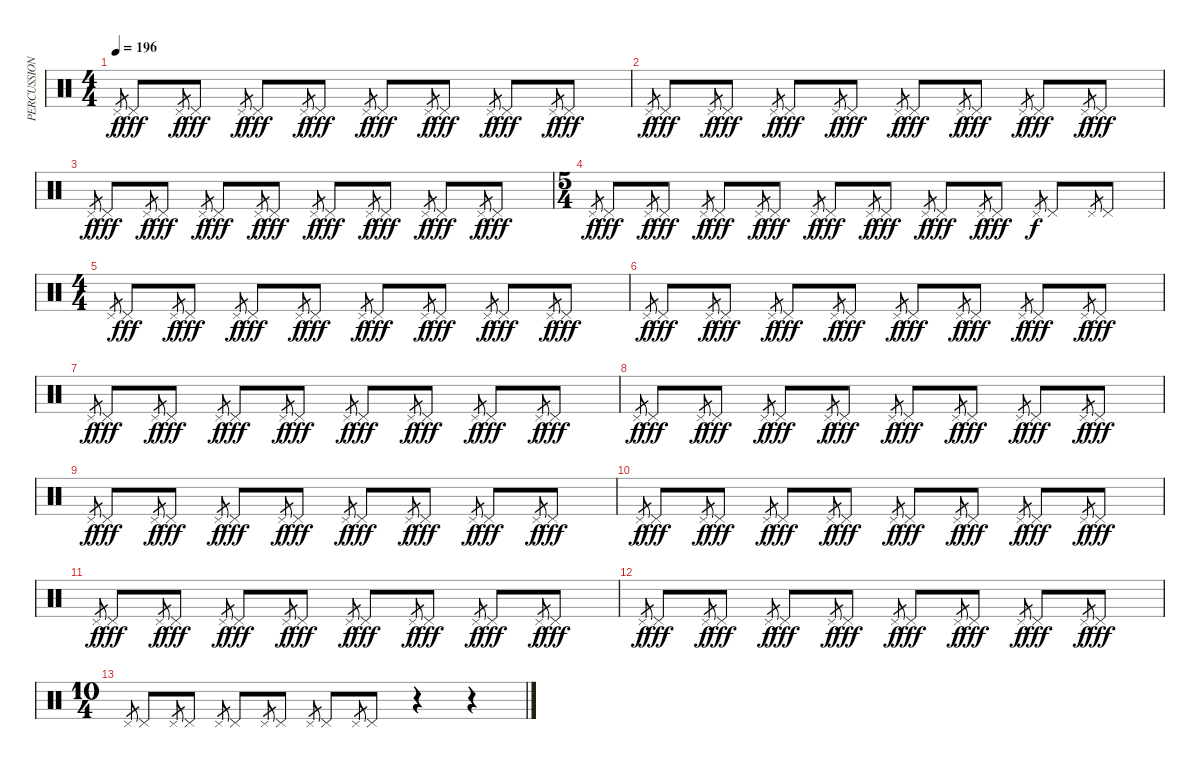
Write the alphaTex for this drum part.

\track ("PERCUSSION" "PERCUSSION") {instrument percussion}
\staff {score}
\articulation defaults
\ts (4 4)
\tempo 196
\clef neutral
\ks c "Pedal Hi-Hat (hit)".8{gr dy f} "Pedal Hi-Hat (hit)".8{dy fff} "Pedal Hi-Hat (hit)".8{gr dy f} "Pedal Hi-Hat (hit)".8{dy fff} "Pedal Hi-Hat (hit)".8{gr dy f} "Pedal Hi-Hat (hit)".8{dy fff} "Pedal Hi-Hat (hit)".8{gr dy f} "Pedal Hi-Hat (hit)".8{dy fff} "Pedal Hi-Hat (hit)".8{gr dy f} "Pedal Hi-Hat (hit)".8{dy fff} "Pedal Hi-Hat (hit)".8{gr dy f} "Pedal Hi-Hat (hit)".8{dy fff} "Pedal Hi-Hat (hit)".8{gr dy f} "Pedal Hi-Hat (hit)".8{dy fff} "Pedal Hi-Hat (hit)".8{gr dy f} "Pedal Hi-Hat (hit)".8{dy fff}
|
"Pedal Hi-Hat (hit)".8{gr dy f} "Pedal Hi-Hat (hit)".8{dy fff} "Pedal Hi-Hat (hit)".8{gr dy f} "Pedal Hi-Hat (hit)".8{dy fff} "Pedal Hi-Hat (hit)".8{gr dy f} "Pedal Hi-Hat (hit)".8{dy fff} "Pedal Hi-Hat (hit)".8{gr dy f} "Pedal Hi-Hat (hit)".8{dy fff} "Pedal Hi-Hat (hit)".8{gr dy f} "Pedal Hi-Hat (hit)".8{dy fff} "Pedal Hi-Hat (hit)".8{gr dy f} "Pedal Hi-Hat (hit)".8{dy fff} "Pedal Hi-Hat (hit)".8{gr dy f} "Pedal Hi-Hat (hit)".8{dy fff} "Pedal Hi-Hat (hit)".8{gr dy f} "Pedal Hi-Hat (hit)".8{dy fff} |
"Pedal Hi-Hat (hit)".8{gr dy f} "Pedal Hi-Hat (hit)".8{dy fff} "Pedal Hi-Hat (hit)".8{gr dy f} "Pedal Hi-Hat (hit)".8{dy fff} "Pedal Hi-Hat (hit)".8{gr dy f} "Pedal Hi-Hat (hit)".8{dy fff} "Pedal Hi-Hat (hit)".8{gr dy f} "Pedal Hi-Hat (hit)".8{dy fff} "Pedal Hi-Hat (hit)".8{gr dy f} "Pedal Hi-Hat (hit)".8{dy fff} "Pedal Hi-Hat (hit)".8{gr dy f} "Pedal Hi-Hat (hit)".8{dy fff} "Pedal Hi-Hat (hit)".8{gr dy f} "Pedal Hi-Hat (hit)".8{dy fff} "Pedal Hi-Hat (hit)".8{gr dy f} "Pedal Hi-Hat (hit)".8{dy fff} |
\ts (5 4)
"Pedal Hi-Hat (hit)".8{gr dy f} "Pedal Hi-Hat (hit)".8{dy fff} "Pedal Hi-Hat (hit)".8{gr dy f} "Pedal Hi-Hat (hit)".8{dy fff} "Pedal Hi-Hat (hit)".8{gr dy f} "Pedal Hi-Hat (hit)".8{dy fff} "Pedal Hi-Hat (hit)".8{gr dy f} "Pedal Hi-Hat (hit)".8{dy fff} "Pedal Hi-Hat (hit)".8{gr dy f} "Pedal Hi-Hat (hit)".8{dy fff} "Pedal Hi-Hat (hit)".8{gr dy f} "Pedal Hi-Hat (hit)".8{dy fff} "Pedal Hi-Hat (hit)".8{gr dy f} "Pedal Hi-Hat (hit)".8{dy fff} "Pedal Hi-Hat (hit)".8{gr dy f} "Pedal Hi-Hat (hit)".8{dy fff} "Pedal Hi-Hat (hit)".8{gr dy f} "Pedal Hi-Hat (hit)".8 "Pedal Hi-Hat (hit)".8{gr} "Pedal Hi-Hat (hit)".8 |
\ts (4 4)
"Pedal Hi-Hat (hit)".8{gr} "Pedal Hi-Hat (hit)".8{dy fff} "Pedal Hi-Hat (hit)".8{gr dy f} "Pedal Hi-Hat (hit)".8{dy fff} "Pedal Hi-Hat (hit)".8{gr dy f} "Pedal Hi-Hat (hit)".8{dy fff} "Pedal Hi-Hat (hit)".8{gr dy f} "Pedal Hi-Hat (hit)".8{dy fff} "Pedal Hi-Hat (hit)".8{gr dy f} "Pedal Hi-Hat (hit)".8{dy fff} "Pedal Hi-Hat (hit)".8{gr dy f} "Pedal Hi-Hat (hit)".8{dy fff} "Pedal Hi-Hat (hit)".8{gr dy f} "Pedal Hi-Hat (hit)".8{dy fff} "Pedal Hi-Hat (hit)".8{gr dy f} "Pedal Hi-Hat (hit)".8{dy fff} |
"Pedal Hi-Hat (hit)".8{gr dy f} "Pedal Hi-Hat (hit)".8{dy fff} "Pedal Hi-Hat (hit)".8{gr dy f} "Pedal Hi-Hat (hit)".8{dy fff} "Pedal Hi-Hat (hit)".8{gr dy f} "Pedal Hi-Hat (hit)".8{dy fff} "Pedal Hi-Hat (hit)".8{gr dy f} "Pedal Hi-Hat (hit)".8{dy fff} "Pedal Hi-Hat (hit)".8{gr dy f} "Pedal Hi-Hat (hit)".8{dy fff} "Pedal Hi-Hat (hit)".8{gr dy f} "Pedal Hi-Hat (hit)".8{dy fff} "Pedal Hi-Hat (hit)".8{gr dy f} "Pedal Hi-Hat (hit)".8{dy fff} "Pedal Hi-Hat (hit)".8{gr dy f} "Pedal Hi-Hat (hit)".8{dy fff} |
"Pedal Hi-Hat (hit)".8{gr dy f} "Pedal Hi-Hat (hit)".8{dy fff} "Pedal Hi-Hat (hit)".8{gr dy f} "Pedal Hi-Hat (hit)".8{dy fff} "Pedal Hi-Hat (hit)".8{gr dy f} "Pedal Hi-Hat (hit)".8{dy fff} "Pedal Hi-Hat (hit)".8{gr dy f} "Pedal Hi-Hat (hit)".8{dy fff} "Pedal Hi-Hat (hit)".8{gr dy f} "Pedal Hi-Hat (hit)".8{dy fff} "Pedal Hi-Hat (hit)".8{gr dy f} "Pedal Hi-Hat (hit)".8{dy fff} "Pedal Hi-Hat (hit)".8{gr dy f} "Pedal Hi-Hat (hit)".8{dy fff} "Pedal Hi-Hat (hit)".8{gr dy f} "Pedal Hi-Hat (hit)".8{dy fff} |
"Pedal Hi-Hat (hit)".8{gr dy f} "Pedal Hi-Hat (hit)".8{dy fff} "Pedal Hi-Hat (hit)".8{gr dy f} "Pedal Hi-Hat (hit)".8{dy fff} "Pedal Hi-Hat (hit)".8{gr dy f} "Pedal Hi-Hat (hit)".8{dy fff} "Pedal Hi-Hat (hit)".8{gr dy f} "Pedal Hi-Hat (hit)".8{dy fff} "Pedal Hi-Hat (hit)".8{gr dy f} "Pedal Hi-Hat (hit)".8{dy fff} "Pedal Hi-Hat (hit)".8{gr dy f} "Pedal Hi-Hat (hit)".8{dy fff} "Pedal Hi-Hat (hit)".8{gr dy f} "Pedal Hi-Hat (hit)".8{dy fff} "Pedal Hi-Hat (hit)".8{gr dy f} "Pedal Hi-Hat (hit)".8{dy fff} |
"Pedal Hi-Hat (hit)".8{gr dy f} "Pedal Hi-Hat (hit)".8{dy fff} "Pedal Hi-Hat (hit)".8{gr dy f} "Pedal Hi-Hat (hit)".8{dy fff} "Pedal Hi-Hat (hit)".8{gr dy f} "Pedal Hi-Hat (hit)".8{dy fff} "Pedal Hi-Hat (hit)".8{gr dy f} "Pedal Hi-Hat (hit)".8{dy fff} "Pedal Hi-Hat (hit)".8{gr dy f} "Pedal Hi-Hat (hit)".8{dy fff} "Pedal Hi-Hat (hit)".8{gr dy f} "Pedal Hi-Hat (hit)".8{dy fff} "Pedal Hi-Hat (hit)".8{gr dy f} "Pedal Hi-Hat (hit)".8{dy fff} "Pedal Hi-Hat (hit)".8{gr dy f} "Pedal Hi-Hat (hit)".8{dy fff} |
"Pedal Hi-Hat (hit)".8{gr dy f} "Pedal Hi-Hat (hit)".8{dy fff} "Pedal Hi-Hat (hit)".8{gr dy f} "Pedal Hi-Hat (hit)".8{dy fff} "Pedal Hi-Hat (hit)".8{gr dy f} "Pedal Hi-Hat (hit)".8{dy fff} "Pedal Hi-Hat (hit)".8{gr dy f} "Pedal Hi-Hat (hit)".8{dy fff} "Pedal Hi-Hat (hit)".8{gr dy f} "Pedal Hi-Hat (hit)".8{dy fff} "Pedal Hi-Hat (hit)".8{gr dy f} "Pedal Hi-Hat (hit)".8{dy fff} "Pedal Hi-Hat (hit)".8{gr dy f} "Pedal Hi-Hat (hit)".8{dy fff} "Pedal Hi-Hat (hit)".8{gr dy f} "Pedal Hi-Hat (hit)".8{dy fff} |
"Pedal Hi-Hat (hit)".8{gr dy f} "Pedal Hi-Hat (hit)".8{dy fff} "Pedal Hi-Hat (hit)".8{gr dy f} "Pedal Hi-Hat (hit)".8{dy fff} "Pedal Hi-Hat (hit)".8{gr dy f} "Pedal Hi-Hat (hit)".8{dy fff} "Pedal Hi-Hat (hit)".8{gr dy f} "Pedal Hi-Hat (hit)".8{dy fff} "Pedal Hi-Hat (hit)".8{gr dy f} "Pedal Hi-Hat (hit)".8{dy fff} "Pedal Hi-Hat (hit)".8{gr dy f} "Pedal Hi-Hat (hit)".8{dy fff} "Pedal Hi-Hat (hit)".8{gr dy f} "Pedal Hi-Hat (hit)".8{dy fff} "Pedal Hi-Hat (hit)".8{gr dy f} "Pedal Hi-Hat (hit)".8{dy fff} |
"Pedal Hi-Hat (hit)".8{gr dy f} "Pedal Hi-Hat (hit)".8{dy fff} "Pedal Hi-Hat (hit)".8{gr dy f} "Pedal Hi-Hat (hit)".8{dy fff} "Pedal Hi-Hat (hit)".8{gr dy f} "Pedal Hi-Hat (hit)".8{dy fff} "Pedal Hi-Hat (hit)".8{gr dy f} "Pedal Hi-Hat (hit)".8{dy fff} "Pedal Hi-Hat (hit)".8{gr dy f} "Pedal Hi-Hat (hit)".8{dy fff} "Pedal Hi-Hat (hit)".8{gr dy f} "Pedal Hi-Hat (hit)".8{dy fff} "Pedal Hi-Hat (hit)".8{gr dy f} "Pedal Hi-Hat (hit)".8{dy fff} "Pedal Hi-Hat (hit)".8{gr dy f} "Pedal Hi-Hat (hit)".8{dy fff} |
\ts (10 4)
"Pedal Hi-Hat (hit)".8{gr} "Pedal Hi-Hat (hit)".8 "Pedal Hi-Hat (hit)".8{gr} "Pedal Hi-Hat (hit)".8 "Pedal Hi-Hat (hit)".8{gr} "Pedal Hi-Hat (hit)".8 "Pedal Hi-Hat (hit)".8{gr} "Pedal Hi-Hat (hit)".8 "Pedal Hi-Hat (hit)".8{gr} "Pedal Hi-Hat (hit)".8 "Pedal Hi-Hat (hit)".8{gr} "Pedal Hi-Hat (hit)".8 r.4 r.4
